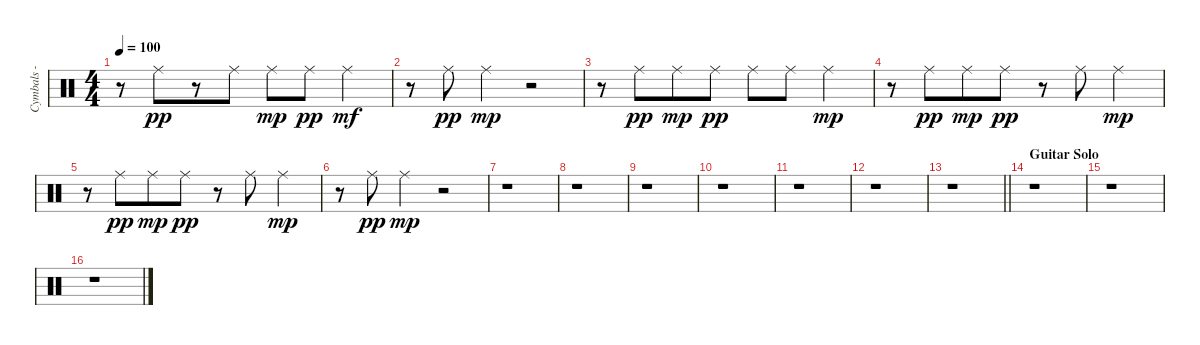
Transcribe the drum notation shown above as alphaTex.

\track ("Cymbals - ride" "Cymbals - ") {instrument percussion}
\staff {score}
\articulation defaults
\ts (4 4)
\tempo 100
\clef neutral
\ks c
r.8{dy mp} "Ride (middle)".8{dy pp beam merge} r.8 "Ride (middle)".8 "Ride (middle)".8{dy mp} "Ride (middle)".8{dy pp} "Ride (middle)".4{dy mf} |
r.8 "Ride (middle)".8{dy pp} "Ride (middle)".4{dy mp} r.2 |
r.8 "Ride (middle)".8{dy pp beam merge} "Ride (middle)".8{dy mp} "Ride (middle)".8{dy pp} "Ride (middle)".8 "Ride (middle)".8 "Ride (middle)".4{dy mp} |
r.8 "Ride (middle)".8{dy pp beam merge} "Ride (middle)".8{dy mp} "Ride (middle)".8{dy pp} r.8 "Ride (middle)".8 "Ride (middle)".4{dy mp} |
r.8 "Ride (middle)".8{dy pp beam merge} "Ride (middle)".8{dy mp} "Ride (middle)".8{dy pp} r.8 "Ride (middle)".8 "Ride (middle)".4{dy mp} |
r.8 "Ride (middle)".8{dy pp} "Ride (middle)".4{dy mp} r.2 |
r.1 |
r.1 |
r.1 |
r.1 |
r.1 |
r.1 |
\barLineRight lightlight
r.1 |
\section ("" "Guitar Solo")
r.1 |
r.1 |
r.1
